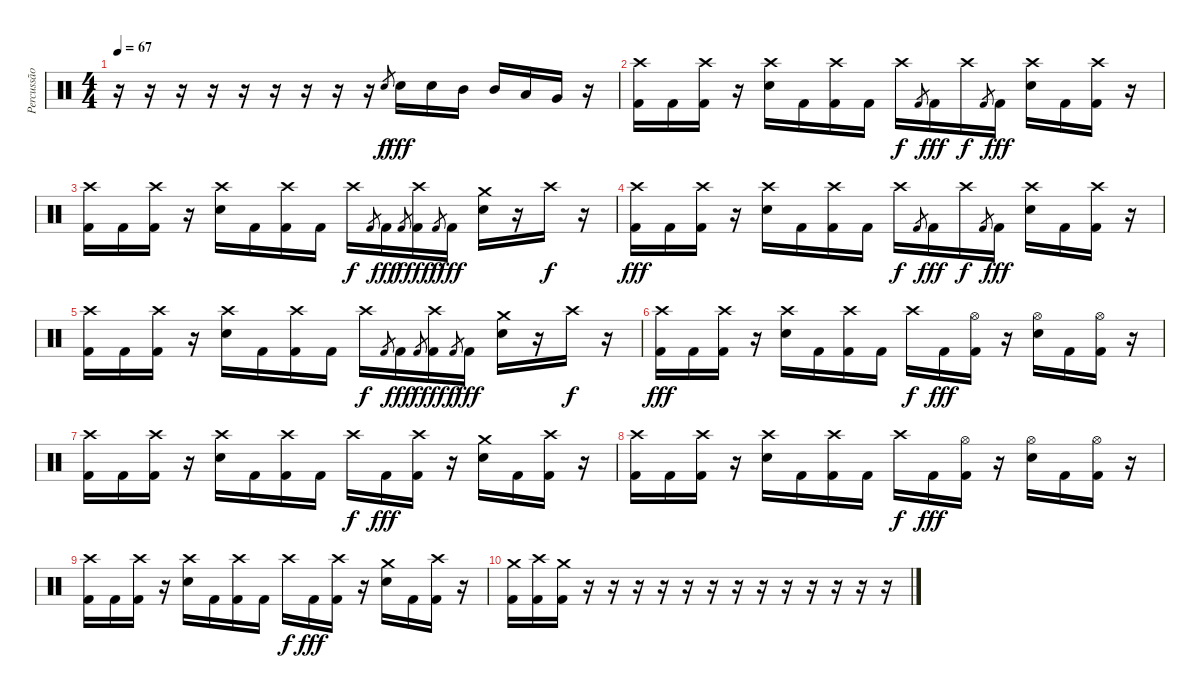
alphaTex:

\track ("Percussão" "Percussão") {instrument percussion}
\staff {score}
\articulation defaults
\ts (4 4)
\tempo 67
\clef neutral
\ks c
r.16{dy fff} r.16 r.16 r.16 r.16 r.16 r.16 r.16 r.16 "Electric Snare (hit)".8{gr dy f} "Electric Snare (hit)".16{dy fff} "Electric Snare (hit)".16 "Mid Tom (hit)".16 "Mid Tom (hit)".16 "Low Tom (hit)".16 "Very Low Tom (hit)".16 r.16 |
("Crash high (hit)" "Kick (hit) 2").16 "Kick (hit) 2".16 ("Crash high (hit)" "Kick (hit) 2").16 r.16 ("Crash high (hit)" "Electric Snare (hit)").16 "Kick (hit) 2".16 ("Crash high (hit)" "Kick (hit) 2").16 "Kick (hit) 2".16 "Crash high (hit)".16{dy f} "Kick (hit) 2".8{gr} "Kick (hit) 2".16{dy fff} "Crash high (hit)".16{dy f} "Kick (hit) 2".8{gr} "Kick (hit) 2".16{dy fff} ("Crash high (hit)" "Electric Snare (hit)").16 "Kick (hit) 2".16 ("Crash high (hit)" "Kick (hit) 2").16 r.16 |
("Crash high (hit)" "Kick (hit) 2").16 "Kick (hit) 2".16 ("Crash high (hit)" "Kick (hit) 2").16 r.16 ("Crash high (hit)" "Electric Snare (hit)").16 "Kick (hit) 2".16 ("Crash high (hit)" "Kick (hit) 2").16 "Kick (hit) 2".16 "Crash high (hit)".16{dy f} "Kick (hit) 2".8{gr} "Kick (hit) 2".16{dy fff} "Kick (hit) 2".8{gr dy f} ("Crash high (hit)" "Kick (hit) 2").16{dy fff} "Kick (hit) 2".8{gr dy f} "Kick (hit) 2".16{dy fff} ("Crash medium (hit)" "Electric Snare (hit)").16 r.16 "Crash high (hit)".16{dy f} r.16 |
("Crash high (hit)" "Kick (hit) 2").16{dy fff} "Kick (hit) 2".16 ("Crash high (hit)" "Kick (hit) 2").16 r.16 ("Crash high (hit)" "Electric Snare (hit)").16 "Kick (hit) 2".16 ("Crash high (hit)" "Kick (hit) 2").16 "Kick (hit) 2".16 "Crash high (hit)".16{dy f} "Kick (hit) 2".8{gr} "Kick (hit) 2".16{dy fff} "Crash high (hit)".16{dy f} "Kick (hit) 2".8{gr} "Kick (hit) 2".16{dy fff} ("Crash high (hit)" "Electric Snare (hit)").16 "Kick (hit) 2".16 ("Crash high (hit)" "Kick (hit) 2").16 r.16 |
("Crash high (hit)" "Kick (hit) 2").16 "Kick (hit) 2".16 ("Crash high (hit)" "Kick (hit) 2").16 r.16 ("Crash high (hit)" "Electric Snare (hit)").16 "Kick (hit) 2".16 ("Crash high (hit)" "Kick (hit) 2").16 "Kick (hit) 2".16 "Crash high (hit)".16{dy f} "Kick (hit) 2".8{gr} "Kick (hit) 2".16{dy fff} "Kick (hit) 2".8{gr dy f} ("Crash high (hit)" "Kick (hit) 2").16{dy fff} "Kick (hit) 2".8{gr dy f} "Kick (hit) 2".16{dy fff} ("Crash medium (hit)" "Electric Snare (hit)").16 r.16 "Crash high (hit)".16{dy f} r.16 |
("Crash high (hit)" "Kick (hit) 2").16{dy fff} "Kick (hit) 2".16 ("Crash high (hit)" "Kick (hit) 2").16 r.16 ("Crash high (hit)" "Electric Snare (hit)").16 "Kick (hit) 2".16 ("Crash high (hit)" "Kick (hit) 2").16 "Kick (hit) 2".16 "Crash high (hit)".16{dy f} "Kick (hit) 2".16{dy fff} ("Hi-Hat (open)" "Kick (hit) 2").16 r.16 ("Hi-Hat (open)" "Electric Snare (hit)").16 "Kick (hit) 2".16 ("Hi-Hat (open)" "Kick (hit) 2").16 r.16 |
("Crash high (hit)" "Kick (hit) 2").16 "Kick (hit) 2".16 ("Crash high (hit)" "Kick (hit) 2").16 r.16 ("Crash high (hit)" "Electric Snare (hit)").16 "Kick (hit) 2".16 ("Crash high (hit)" "Kick (hit) 2").16 "Kick (hit) 2".16 "Crash high (hit)".16{dy f} "Kick (hit) 2".16{dy fff} ("Crash high (hit)" "Kick (hit) 2").16 r.16 ("Crash medium (hit)" "Electric Snare (hit)").16 "Kick (hit) 2".16 ("Crash high (hit)" "Kick (hit) 2").16 r.16 |
("Crash high (hit)" "Kick (hit) 2").16 "Kick (hit) 2".16 ("Crash high (hit)" "Kick (hit) 2").16 r.16 ("Crash high (hit)" "Electric Snare (hit)").16 "Kick (hit) 2".16 ("Crash high (hit)" "Kick (hit) 2").16 "Kick (hit) 2".16 "Crash high (hit)".16{dy f} "Kick (hit) 2".16{dy fff} ("Hi-Hat (open)" "Kick (hit) 2").16 r.16 ("Hi-Hat (open)" "Electric Snare (hit)").16 "Kick (hit) 2".16 ("Hi-Hat (open)" "Kick (hit) 2").16 r.16 |
("Crash high (hit)" "Kick (hit) 2").16 "Kick (hit) 2".16 ("Crash high (hit)" "Kick (hit) 2").16 r.16 ("Crash high (hit)" "Electric Snare (hit)").16 "Kick (hit) 2".16 ("Crash high (hit)" "Kick (hit) 2").16 "Kick (hit) 2".16 "Crash high (hit)".16{dy f} "Kick (hit) 2".16{dy fff} ("Crash high (hit)" "Kick (hit) 2").16 r.16 ("Crash medium (hit)" "Electric Snare (hit)").16 "Kick (hit) 2".16 ("Crash high (hit)" "Kick (hit) 2").16 r.16 |
("Crash medium (hit)" "Kick (hit) 2").16 ("Crash high (hit)" "Kick (hit) 2").16 ("Crash medium (hit)" "Kick (hit) 2").16 r.16 r.16 r.16 r.16 r.16 r.16 r.16 r.16 r.16 r.16 r.16 r.16 r.16
